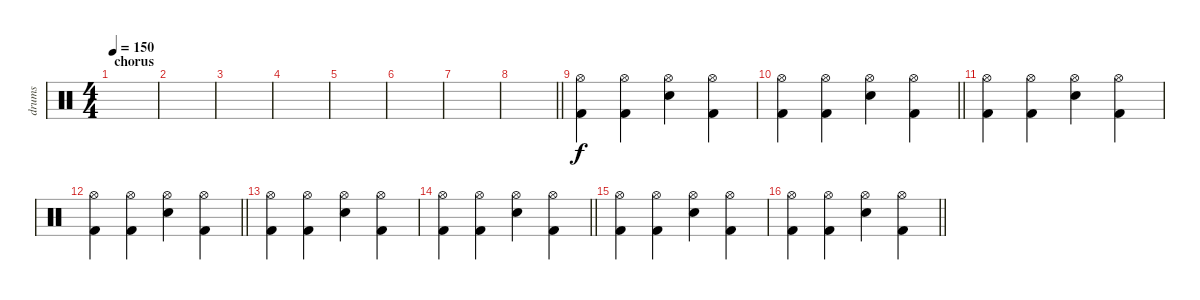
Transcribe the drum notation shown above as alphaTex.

\track ("drums" "drums") {instrument percussion}
\staff {score}
\articulation defaults
\ts (4 4)
\section ("" "chorus")
\tempo 150
\clef neutral
\ks c
|
|
|
|
|
|
|
\barLineRight lightlight
|
("Hi-Hat (open)" "Kick (hit) 2").4 ("Hi-Hat (open)" "Kick (hit) 2").4 ("Hi-Hat (open)" "Electric Snare (hit)").4 ("Hi-Hat (open)" "Kick (hit) 2").4 |
\barLineRight lightlight
("Hi-Hat (open)" "Kick (hit) 2").4 ("Hi-Hat (open)" "Kick (hit) 2").4 ("Hi-Hat (open)" "Electric Snare (hit)").4 ("Hi-Hat (open)" "Kick (hit) 2").4 |
("Hi-Hat (open)" "Kick (hit) 2").4 ("Hi-Hat (open)" "Kick (hit) 2").4 ("Hi-Hat (open)" "Electric Snare (hit)").4 ("Hi-Hat (open)" "Kick (hit) 2").4 |
\barLineRight lightlight
("Hi-Hat (open)" "Kick (hit) 2").4 ("Hi-Hat (open)" "Kick (hit) 2").4 ("Hi-Hat (open)" "Electric Snare (hit)").4 ("Hi-Hat (open)" "Kick (hit) 2").4 |
("Hi-Hat (open)" "Kick (hit) 2").4 ("Hi-Hat (open)" "Kick (hit) 2").4 ("Hi-Hat (open)" "Electric Snare (hit)").4 ("Hi-Hat (open)" "Kick (hit) 2").4 |
\barLineRight lightlight
("Hi-Hat (open)" "Kick (hit) 2").4 ("Hi-Hat (open)" "Kick (hit) 2").4 ("Hi-Hat (open)" "Electric Snare (hit)").4 ("Hi-Hat (open)" "Kick (hit) 2").4 |
("Hi-Hat (open)" "Kick (hit) 2").4 ("Hi-Hat (open)" "Kick (hit) 2").4 ("Hi-Hat (open)" "Electric Snare (hit)").4 ("Hi-Hat (open)" "Kick (hit) 2").4 |
\barLineRight lightlight
("Hi-Hat (open)" "Kick (hit) 2").4 ("Hi-Hat (open)" "Kick (hit) 2").4 ("Hi-Hat (open)" "Electric Snare (hit)").4 ("Hi-Hat (open)" "Kick (hit) 2").4
